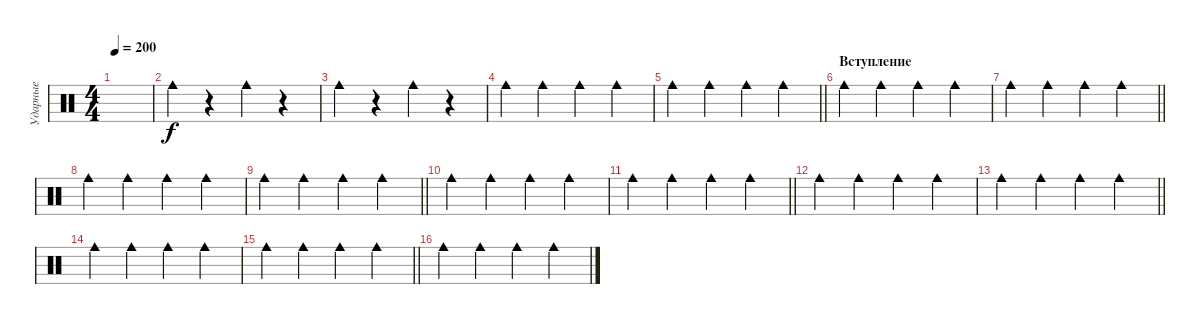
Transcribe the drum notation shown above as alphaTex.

\track ("Ударные" "Ударные") {instrument percussion}
\staff {score}
\articulation defaults
\ts (4 4)
\tempo 200
\clef neutral
\ks c
|
"Cowbell medium (hit)".4 r.4 "Cowbell medium (hit)".4 r.4 |
"Cowbell medium (hit)".4 r.4 "Cowbell medium (hit)".4 r.4 |
"Cowbell medium (hit)".4 "Cowbell medium (hit)".4 "Cowbell medium (hit)".4 "Cowbell medium (hit)".4 |
\barLineRight lightlight "Cowbell medium (hit)".4 "Cowbell medium (hit)".4 "Cowbell medium (hit)".4 "Cowbell medium (hit)".4
|
\section ("" "Вступление")
"Cowbell medium (hit)".4 "Cowbell medium (hit)".4 "Cowbell medium (hit)".4 "Cowbell medium (hit)".4 |
\barLineRight lightlight "Cowbell medium (hit)".4 "Cowbell medium (hit)".4 "Cowbell medium (hit)".4 "Cowbell medium (hit)".4
|
"Cowbell medium (hit)".4 "Cowbell medium (hit)".4 "Cowbell medium (hit)".4 "Cowbell medium (hit)".4 |
\barLineRight lightlight "Cowbell medium (hit)".4 "Cowbell medium (hit)".4 "Cowbell medium (hit)".4 "Cowbell medium (hit)".4
|
"Cowbell medium (hit)".4 "Cowbell medium (hit)".4 "Cowbell medium (hit)".4 "Cowbell medium (hit)".4 |
\barLineRight lightlight "Cowbell medium (hit)".4 "Cowbell medium (hit)".4 "Cowbell medium (hit)".4 "Cowbell medium (hit)".4
|
"Cowbell medium (hit)".4 "Cowbell medium (hit)".4 "Cowbell medium (hit)".4 "Cowbell medium (hit)".4 |
\barLineRight lightlight "Cowbell medium (hit)".4 "Cowbell medium (hit)".4 "Cowbell medium (hit)".4 "Cowbell medium (hit)".4
|
"Cowbell medium (hit)".4 "Cowbell medium (hit)".4 "Cowbell medium (hit)".4 "Cowbell medium (hit)".4 |
\barLineRight lightlight "Cowbell medium (hit)".4 "Cowbell medium (hit)".4 "Cowbell medium (hit)".4 "Cowbell medium (hit)".4
|
"Cowbell medium (hit)".4 "Cowbell medium (hit)".4 "Cowbell medium (hit)".4 "Cowbell medium (hit)".4
